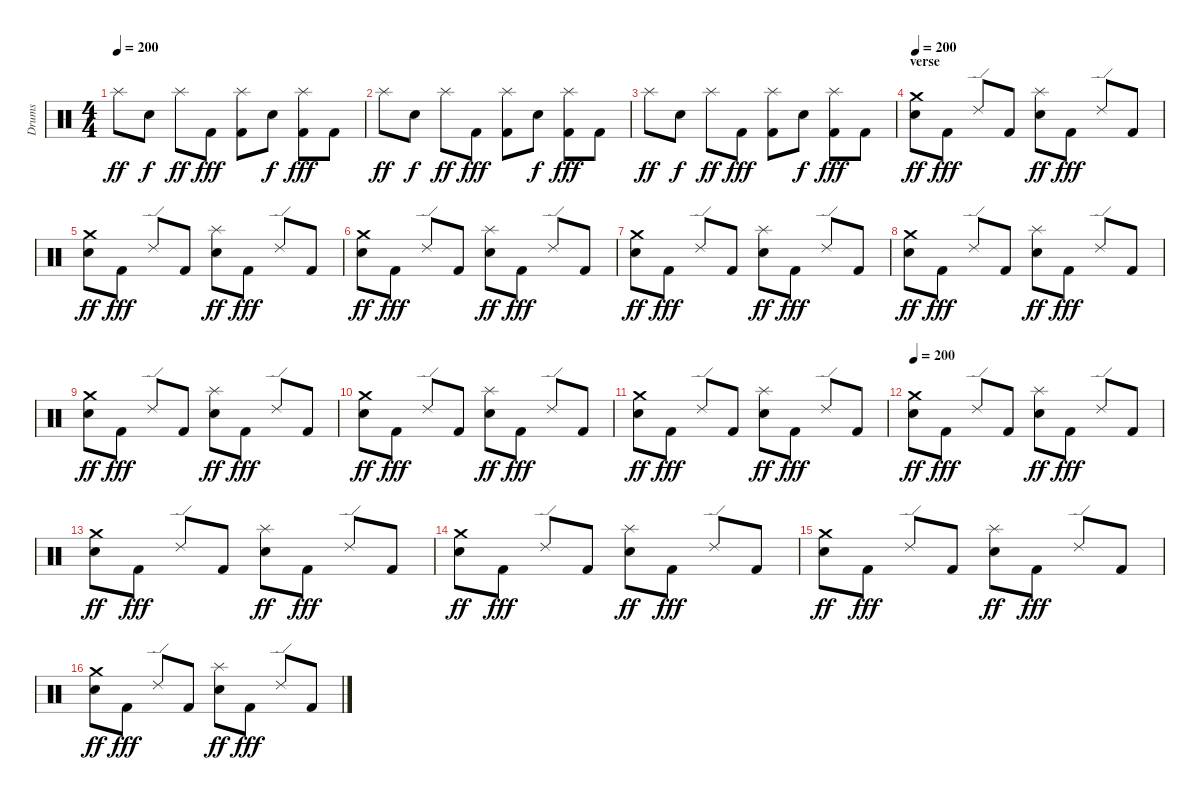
\track ("Drums" "Drums") {instrument percussion}
\staff {score}
\articulation defaults
\ts (4 4)
\tempo 200
\clef neutral
\ks c "Splash (hit)".8{dy ff} "Electric Snare (hit)".8{dy f} "Splash (hit)".8{dy ff} "Kick (hit) 2".8{dy fff}
("Splash (hit)" "Kick (hit) 2").8 "Electric Snare (hit)".8{dy f} ("Splash (hit)" "Kick (hit) 2").8{dy fff} "Kick (hit) 2".8 |
"Splash (hit)".8{dy ff} "Electric Snare (hit)".8{dy f} "Splash (hit)".8{dy ff} "Kick (hit) 2".8{dy fff} ("Splash (hit)" "Kick (hit) 2").8 "Electric Snare (hit)".8{dy f} ("Splash (hit)" "Kick (hit) 2").8{dy fff} "Kick (hit) 2".8 |
"Splash (hit)".8{dy ff} "Electric Snare (hit)".8{dy f} "Splash (hit)".8{dy ff} "Kick (hit) 2".8{dy fff} ("Splash (hit)" "Kick (hit) 2").8 "Electric Snare (hit)".8{dy f} ("Splash (hit)" "Kick (hit) 2").8{dy fff} "Kick (hit) 2".8 |
\section ("" "verse")
\tempo 200
("Crash medium (hit)" "Electric Snare (hit)").8{dy ff} "Kick (hit) 2".8{dy fff} "Ride (edge) 2".8 "Kick (hit) 2".8 ("Electric Snare (hit)" "Splash (hit)").8{dy ff} "Kick (hit) 2".8{dy fff} "Ride (edge) 2".8 "Kick (hit) 2".8 |
("Crash medium (hit)" "Electric Snare (hit)").8{dy ff} "Kick (hit) 2".8{dy fff} "Ride (edge) 2".8 "Kick (hit) 2".8 ("Electric Snare (hit)" "Splash (hit)").8{dy ff} "Kick (hit) 2".8{dy fff} "Ride (edge) 2".8 "Kick (hit) 2".8 |
("Crash medium (hit)" "Electric Snare (hit)").8{dy ff} "Kick (hit) 2".8{dy fff} "Ride (edge) 2".8 "Kick (hit) 2".8 ("Electric Snare (hit)" "Splash (hit)").8{dy ff} "Kick (hit) 2".8{dy fff} "Ride (edge) 2".8 "Kick (hit) 2".8 |
("Crash medium (hit)" "Electric Snare (hit)").8{dy ff} "Kick (hit) 2".8{dy fff} "Ride (edge) 2".8 "Kick (hit) 2".8 ("Electric Snare (hit)" "Splash (hit)").8{dy ff} "Kick (hit) 2".8{dy fff} "Ride (edge) 2".8 "Kick (hit) 2".8 |
("Crash medium (hit)" "Electric Snare (hit)").8{dy ff} "Kick (hit) 2".8{dy fff} "Ride (edge) 2".8 "Kick (hit) 2".8 ("Electric Snare (hit)" "Splash (hit)").8{dy ff} "Kick (hit) 2".8{dy fff} "Ride (edge) 2".8 "Kick (hit) 2".8 |
("Crash medium (hit)" "Electric Snare (hit)").8{dy ff} "Kick (hit) 2".8{dy fff} "Ride (edge) 2".8 "Kick (hit) 2".8 ("Electric Snare (hit)" "Splash (hit)").8{dy ff} "Kick (hit) 2".8{dy fff} "Ride (edge) 2".8 "Kick (hit) 2".8 |
("Crash medium (hit)" "Electric Snare (hit)").8{dy ff} "Kick (hit) 2".8{dy fff} "Ride (edge) 2".8 "Kick (hit) 2".8 ("Electric Snare (hit)" "Splash (hit)").8{dy ff} "Kick (hit) 2".8{dy fff} "Ride (edge) 2".8 "Kick (hit) 2".8 |
("Crash medium (hit)" "Electric Snare (hit)").8{dy ff} "Kick (hit) 2".8{dy fff} "Ride (edge) 2".8 "Kick (hit) 2".8 ("Electric Snare (hit)" "Splash (hit)").8{dy ff} "Kick (hit) 2".8{dy fff} "Ride (edge) 2".8 "Kick (hit) 2".8 |
\tempo 200
("Crash medium (hit)" "Electric Snare (hit)").8{dy ff} "Kick (hit) 2".8{dy fff} "Ride (edge) 2".8 "Kick (hit) 2".8 ("Electric Snare (hit)" "Splash (hit)").8{dy ff} "Kick (hit) 2".8{dy fff} "Ride (edge) 2".8 "Kick (hit) 2".8 |
("Crash medium (hit)" "Electric Snare (hit)").8{dy ff} "Kick (hit) 2".8{dy fff} "Ride (edge) 2".8 "Kick (hit) 2".8 ("Electric Snare (hit)" "Splash (hit)").8{dy ff} "Kick (hit) 2".8{dy fff} "Ride (edge) 2".8 "Kick (hit) 2".8 |
("Crash medium (hit)" "Electric Snare (hit)").8{dy ff} "Kick (hit) 2".8{dy fff} "Ride (edge) 2".8 "Kick (hit) 2".8 ("Electric Snare (hit)" "Splash (hit)").8{dy ff} "Kick (hit) 2".8{dy fff} "Ride (edge) 2".8 "Kick (hit) 2".8 |
("Crash medium (hit)" "Electric Snare (hit)").8{dy ff} "Kick (hit) 2".8{dy fff} "Ride (edge) 2".8 "Kick (hit) 2".8 ("Electric Snare (hit)" "Splash (hit)").8{dy ff} "Kick (hit) 2".8{dy fff} "Ride (edge) 2".8 "Kick (hit) 2".8 |
("Crash medium (hit)" "Electric Snare (hit)").8{dy ff} "Kick (hit) 2".8{dy fff} "Ride (edge) 2".8 "Kick (hit) 2".8 ("Electric Snare (hit)" "Splash (hit)").8{dy ff} "Kick (hit) 2".8{dy fff} "Ride (edge) 2".8 "Kick (hit) 2".8
